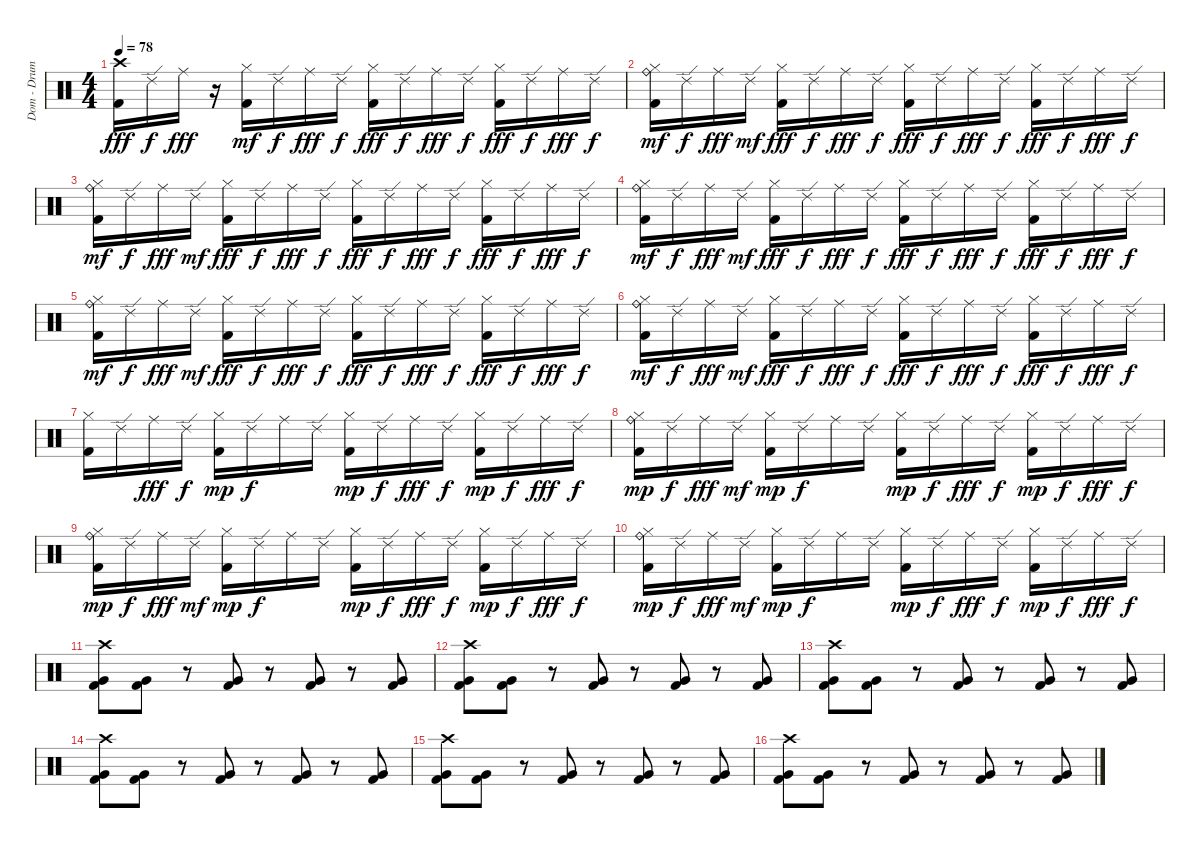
\track ("Dom - Drums" "Dom - Drum") {instrument percussion}
\staff {score}
\articulation defaults
\ts (4 4)
\tempo 78
\clef neutral
\ks c
("Crash high (hit)" "Kick (hit) 2").16{dy fff} "Ride (edge) 2".16{dy f} "Ride (middle)".16{dy fff} r.16 ("Hi-Hat (closed)" "Kick (hit) 2").16{dy mf} "Ride (edge) 2".16{dy f} "Ride (middle)".16{dy fff} "Ride (edge) 2".16{dy f} ("Hi-Hat (closed)" "Kick (hit) 2").16{dy fff} "Ride (edge) 2".16{dy f} "Ride (middle)".16{dy fff} "Ride (edge) 2".16{dy f} ("Hi-Hat (closed)" "Kick (hit) 2").16{dy fff} "Ride (edge) 2".16{dy f} "Ride (middle)".16{dy fff} "Ride (edge) 2".16{dy f} |
("Ride (bell)" "Hi-Hat (closed)" "Kick (hit) 2").16{dy mf} "Ride (edge) 2".16{dy f} "Ride (middle)".16{dy fff} "Ride (edge) 2".16{dy mf} ("Hi-Hat (closed)" "Kick (hit) 2").16{dy fff} "Ride (edge) 2".16{dy f} "Ride (middle)".16{dy fff} "Ride (edge) 2".16{dy f} ("Hi-Hat (closed)" "Kick (hit) 2").16{dy fff} "Ride (edge) 2".16{dy f} "Ride (middle)".16{dy fff} "Ride (edge) 2".16{dy f} ("Hi-Hat (closed)" "Kick (hit) 2").16{dy fff} "Ride (edge) 2".16{dy f} "Ride (middle)".16{dy fff} "Ride (edge) 2".16{dy f} |
("Ride (bell)" "Hi-Hat (closed)" "Kick (hit) 2").16{dy mf} "Ride (edge) 2".16{dy f} "Ride (middle)".16{dy fff} "Ride (edge) 2".16{dy mf} ("Hi-Hat (closed)" "Kick (hit) 2").16{dy fff} "Ride (edge) 2".16{dy f} "Ride (middle)".16{dy fff} "Ride (edge) 2".16{dy f} ("Hi-Hat (closed)" "Kick (hit) 2").16{dy fff} "Ride (edge) 2".16{dy f} "Ride (middle)".16{dy fff} "Ride (edge) 2".16{dy f} ("Hi-Hat (closed)" "Kick (hit) 2").16{dy fff} "Ride (edge) 2".16{dy f} "Ride (middle)".16{dy fff} "Ride (edge) 2".16{dy f} |
("Ride (bell)" "Hi-Hat (closed)" "Kick (hit) 2").16{dy mf} "Ride (edge) 2".16{dy f} "Ride (middle)".16{dy fff} "Ride (edge) 2".16{dy mf} ("Hi-Hat (closed)" "Kick (hit) 2").16{dy fff} "Ride (edge) 2".16{dy f} "Ride (middle)".16{dy fff} "Ride (edge) 2".16{dy f} ("Hi-Hat (closed)" "Kick (hit) 2").16{dy fff} "Ride (edge) 2".16{dy f} "Ride (middle)".16{dy fff} "Ride (edge) 2".16{dy f} ("Hi-Hat (closed)" "Kick (hit) 2").16{dy fff} "Ride (edge) 2".16{dy f} "Ride (middle)".16{dy fff} "Ride (edge) 2".16{dy f} |
("Ride (bell)" "Hi-Hat (closed)" "Kick (hit) 2").16{dy mf} "Ride (edge) 2".16{dy f} "Ride (middle)".16{dy fff} "Ride (edge) 2".16{dy mf} ("Hi-Hat (closed)" "Kick (hit) 2").16{dy fff} "Ride (edge) 2".16{dy f} "Ride (middle)".16{dy fff} "Ride (edge) 2".16{dy f} ("Hi-Hat (closed)" "Kick (hit) 2").16{dy fff} "Ride (edge) 2".16{dy f} "Ride (middle)".16{dy fff} "Ride (edge) 2".16{dy f} ("Hi-Hat (closed)" "Kick (hit) 2").16{dy fff} "Ride (edge) 2".16{dy f} "Ride (middle)".16{dy fff} "Ride (edge) 2".16{dy f} |
("Ride (bell)" "Hi-Hat (closed)" "Kick (hit) 2").16{dy mf} "Ride (edge) 2".16{dy f} "Ride (middle)".16{dy fff} "Ride (edge) 2".16{dy mf} ("Hi-Hat (closed)" "Kick (hit) 2").16{dy fff} "Ride (edge) 2".16{dy f} "Ride (middle)".16{dy fff} "Ride (edge) 2".16{dy f} ("Hi-Hat (closed)" "Kick (hit) 2").16{dy fff} "Ride (edge) 2".16{dy f} "Ride (middle)".16{dy fff} "Ride (edge) 2".16{dy f} ("Hi-Hat (closed)" "Kick (hit) 2").16{dy fff} "Ride (edge) 2".16{dy f} "Ride (middle)".16{dy fff} "Ride (edge) 2".16{dy f} |
("Hi-Hat (closed)" "Kick (hit) 2").16 "Ride (edge) 2".16 "Ride (middle)".16{dy fff} "Ride (edge) 2".16{dy f} ("Hi-Hat (closed)" "Kick (hit) 2").16{dy mp} "Ride (edge) 2".16{dy f} "Ride (middle)".16 "Ride (edge) 2".16 ("Hi-Hat (closed)" "Kick (hit) 2").16{dy mp} "Ride (edge) 2".16{dy f} "Ride (middle)".16{dy fff} "Ride (edge) 2".16{dy f} ("Hi-Hat (closed)" "Kick (hit) 2").16{dy mp} "Ride (edge) 2".16{dy f} "Ride (middle)".16{dy fff} "Ride (edge) 2".16{dy f} |
("Ride (bell)" "Hi-Hat (closed)" "Kick (hit) 2").16{dy mp} "Ride (edge) 2".16{dy f} "Ride (middle)".16{dy fff} "Ride (edge) 2".16{dy mf} ("Hi-Hat (closed)" "Kick (hit) 2").16{dy mp} "Ride (edge) 2".16{dy f} "Ride (middle)".16 "Ride (edge) 2".16 ("Hi-Hat (closed)" "Kick (hit) 2").16{dy mp} "Ride (edge) 2".16{dy f} "Ride (middle)".16{dy fff} "Ride (edge) 2".16{dy f} ("Hi-Hat (closed)" "Kick (hit) 2").16{dy mp} "Ride (edge) 2".16{dy f} "Ride (middle)".16{dy fff} "Ride (edge) 2".16{dy f} |
("Ride (bell)" "Hi-Hat (closed)" "Kick (hit) 2").16{dy mp} "Ride (edge) 2".16{dy f} "Ride (middle)".16{dy fff} "Ride (edge) 2".16{dy mf} ("Hi-Hat (closed)" "Kick (hit) 2").16{dy mp} "Ride (edge) 2".16{dy f} "Ride (middle)".16 "Ride (edge) 2".16 ("Hi-Hat (closed)" "Kick (hit) 2").16{dy mp} "Ride (edge) 2".16{dy f} "Ride (middle)".16{dy fff} "Ride (edge) 2".16{dy f} ("Hi-Hat (closed)" "Kick (hit) 2").16{dy mp} "Ride (edge) 2".16{dy f} "Ride (middle)".16{dy fff} "Ride (edge) 2".16{dy f} |
("Ride (bell)" "Hi-Hat (closed)" "Kick (hit) 2").16{dy mp} "Ride (edge) 2".16{dy f} "Ride (middle)".16{dy fff} "Ride (edge) 2".16{dy mf} ("Hi-Hat (closed)" "Kick (hit) 2").16{dy mp} "Ride (edge) 2".16{dy f} "Ride (middle)".16 "Ride (edge) 2".16 ("Hi-Hat (closed)" "Kick (hit) 2").16{dy mp} "Ride (edge) 2".16{dy f} "Ride (middle)".16{dy fff} "Ride (edge) 2".16{dy f} ("Hi-Hat (closed)" "Kick (hit) 2").16{dy mp} "Ride (edge) 2".16{dy f} "Ride (middle)".16{dy fff} "Ride (edge) 2".16{dy f} |
("Crash high (hit)" "Very Low Tom (hit)" "Kick (hit) 2").8 ("Very Low Tom (hit)" "Kick (hit) 2").8 r.8 ("Very Low Tom (hit)" "Kick (hit) 2").8 r.8 ("Very Low Tom (hit)" "Kick (hit) 2").8 r.8 ("Very Low Tom (hit)" "Kick (hit) 2").8 |
("Crash high (hit)" "Very Low Tom (hit)" "Kick (hit) 2").8 ("Very Low Tom (hit)" "Kick (hit) 2").8 r.8 ("Very Low Tom (hit)" "Kick (hit) 2").8 r.8 ("Very Low Tom (hit)" "Kick (hit) 2").8 r.8 ("Very Low Tom (hit)" "Kick (hit) 2").8 |
("Crash high (hit)" "Very Low Tom (hit)" "Kick (hit) 2").8 ("Very Low Tom (hit)" "Kick (hit) 2").8 r.8 ("Very Low Tom (hit)" "Kick (hit) 2").8 r.8 ("Very Low Tom (hit)" "Kick (hit) 2").8 r.8 ("Very Low Tom (hit)" "Kick (hit) 2").8 |
("Crash high (hit)" "Very Low Tom (hit)" "Kick (hit) 2").8 ("Very Low Tom (hit)" "Kick (hit) 2").8 r.8 ("Very Low Tom (hit)" "Kick (hit) 2").8 r.8 ("Very Low Tom (hit)" "Kick (hit) 2").8 r.8 ("Very Low Tom (hit)" "Kick (hit) 2").8 |
("Crash high (hit)" "Very Low Tom (hit)" "Kick (hit) 2").8 ("Very Low Tom (hit)" "Kick (hit) 2").8 r.8 ("Very Low Tom (hit)" "Kick (hit) 2").8 r.8 ("Very Low Tom (hit)" "Kick (hit) 2").8 r.8 ("Very Low Tom (hit)" "Kick (hit) 2").8 |
("Crash high (hit)" "Very Low Tom (hit)" "Kick (hit) 2").8 ("Very Low Tom (hit)" "Kick (hit) 2").8 r.8 ("Very Low Tom (hit)" "Kick (hit) 2").8 r.8 ("Very Low Tom (hit)" "Kick (hit) 2").8 r.8 ("Very Low Tom (hit)" "Kick (hit) 2").8
